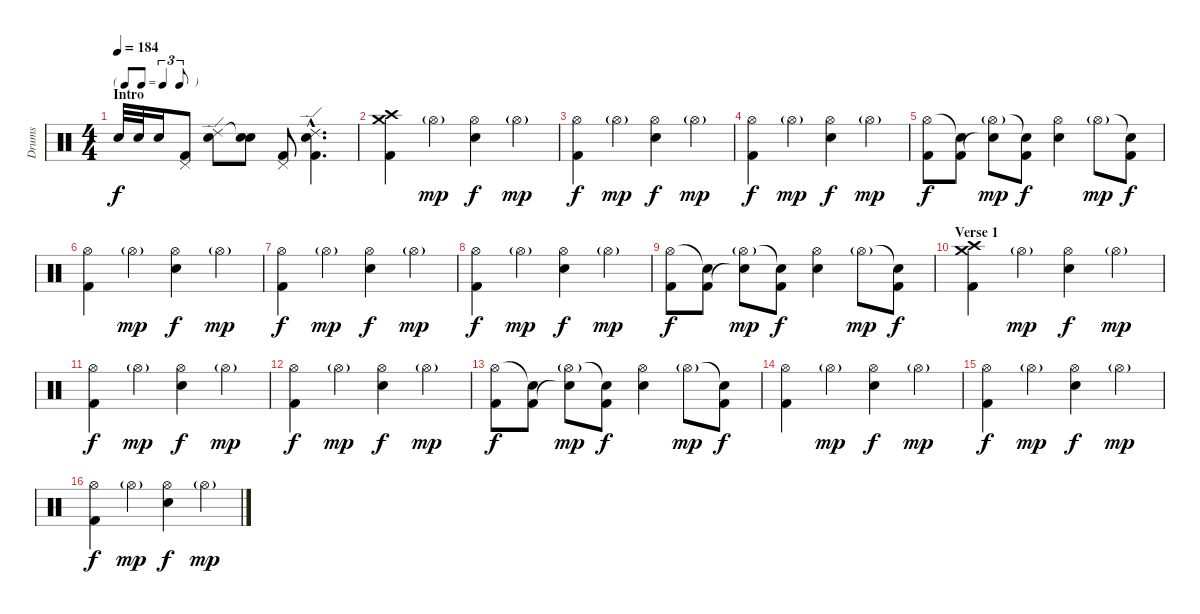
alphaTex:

\track ("Drums" "Drums") {instrument percussion}
\staff {score}
\articulation defaults
\ts (4 4)
\tf triplet8th
\section ("" "Intro")
\tempo 184
\clef neutral
\ks c "Electric Snare (hit)".32{dy f} "Electric Snare (hit)".32 "Electric Snare (hit)".16
("Pedal Hi-Hat (hit)" "Kick (hit) 2").8 ("Ride (edge) 2" "Electric Snare (hit)").8 ("Snare (hit)"{t} "Electric Snare (hit)").8 ("Pedal Hi-Hat (hit)" "Kick (hit) 2").8 ("Ride (edge) 2"{hac} "Electric Snare (hit)"{hac} "Kick (hit) 2"{hac}).4{d} |
("Crash high (hit)" "Crash medium (hit)" "Kick (hit) 2").4 "Hi-Hat (open)"{g}.4{dy mp} ("Hi-Hat (open)" "Electric Snare (hit)").4{dy f} "Hi-Hat (open)"{g}.4{dy mp} |
("Hi-Hat (open)" "Kick (hit) 2").4{dy f} "Hi-Hat (open)"{g}.4{dy mp} ("Hi-Hat (open)" "Electric Snare (hit)").4{dy f} "Hi-Hat (open)"{g}.4{dy mp} |
("Hi-Hat (open)" "Kick (hit) 2").4{dy f} "Hi-Hat (open)"{g}.4{dy mp} ("Hi-Hat (open)" "Electric Snare (hit)").4{dy f} "Hi-Hat (open)"{g}.4{dy mp} |
("Hi-Hat (open)" "Kick (hit) 2").8{dy f} ("Snare (hit)"{t} "Kick (hit) 2").8 ("Hi-Hat (open)"{g} "Snare (hit)"{t}).8{dy mp} ("Snare (hit)"{t} "Kick (hit) 2").8{dy f} ("Hi-Hat (open)" "Electric Snare (hit)").4 "Hi-Hat (open)"{g}.8{dy mp} ("Snare (hit)"{t} "Kick (hit) 2").8{dy f} |
("Hi-Hat (open)" "Kick (hit) 2").4 "Hi-Hat (open)"{g}.4{dy mp} ("Hi-Hat (open)" "Electric Snare (hit)").4{dy f} "Hi-Hat (open)"{g}.4{dy mp} |
("Hi-Hat (open)" "Kick (hit) 2").4{dy f} "Hi-Hat (open)"{g}.4{dy mp} ("Hi-Hat (open)" "Electric Snare (hit)").4{dy f} "Hi-Hat (open)"{g}.4{dy mp} |
("Hi-Hat (open)" "Kick (hit) 2").4{dy f} "Hi-Hat (open)"{g}.4{dy mp} ("Hi-Hat (open)" "Electric Snare (hit)").4{dy f} "Hi-Hat (open)"{g}.4{dy mp} |
("Hi-Hat (open)" "Kick (hit) 2").8{dy f} ("Snare (hit)"{t} "Kick (hit) 2").8 ("Hi-Hat (open)"{g} "Snare (hit)"{t}).8{dy mp} ("Snare (hit)"{t} "Kick (hit) 2").8{dy f} ("Hi-Hat (open)" "Electric Snare (hit)").4 "Hi-Hat (open)"{g}.8{dy mp} ("Snare (hit)"{t} "Kick (hit) 2").8{dy f} |
\section ("" "Verse 1")
("Crash high (hit)" "Crash medium (hit)" "Kick (hit) 2").4 "Hi-Hat (open)"{g}.4{dy mp} ("Hi-Hat (open)" "Electric Snare (hit)").4{dy f} "Hi-Hat (open)"{g}.4{dy mp} |
("Hi-Hat (open)" "Kick (hit) 2").4{dy f} "Hi-Hat (open)"{g}.4{dy mp} ("Hi-Hat (open)" "Electric Snare (hit)").4{dy f} "Hi-Hat (open)"{g}.4{dy mp} |
("Hi-Hat (open)" "Kick (hit) 2").4{dy f} "Hi-Hat (open)"{g}.4{dy mp} ("Hi-Hat (open)" "Electric Snare (hit)").4{dy f} "Hi-Hat (open)"{g}.4{dy mp} |
("Hi-Hat (open)" "Kick (hit) 2").8{dy f} ("Snare (hit)"{t} "Kick (hit) 2").8 ("Hi-Hat (open)"{g} "Snare (hit)"{t}).8{dy mp} ("Snare (hit)"{t} "Kick (hit) 2").8{dy f} ("Hi-Hat (open)" "Electric Snare (hit)").4 "Hi-Hat (open)"{g}.8{dy mp} ("Snare (hit)"{t} "Kick (hit) 2").8{dy f} |
("Hi-Hat (open)" "Kick (hit) 2").4 "Hi-Hat (open)"{g}.4{dy mp} ("Hi-Hat (open)" "Electric Snare (hit)").4{dy f} "Hi-Hat (open)"{g}.4{dy mp} |
("Hi-Hat (open)" "Kick (hit) 2").4{dy f} "Hi-Hat (open)"{g}.4{dy mp} ("Hi-Hat (open)" "Electric Snare (hit)").4{dy f} "Hi-Hat (open)"{g}.4{dy mp} |
("Hi-Hat (open)" "Kick (hit) 2").4{dy f} "Hi-Hat (open)"{g}.4{dy mp} ("Hi-Hat (open)" "Electric Snare (hit)").4{dy f} "Hi-Hat (open)"{g}.4{dy mp}
